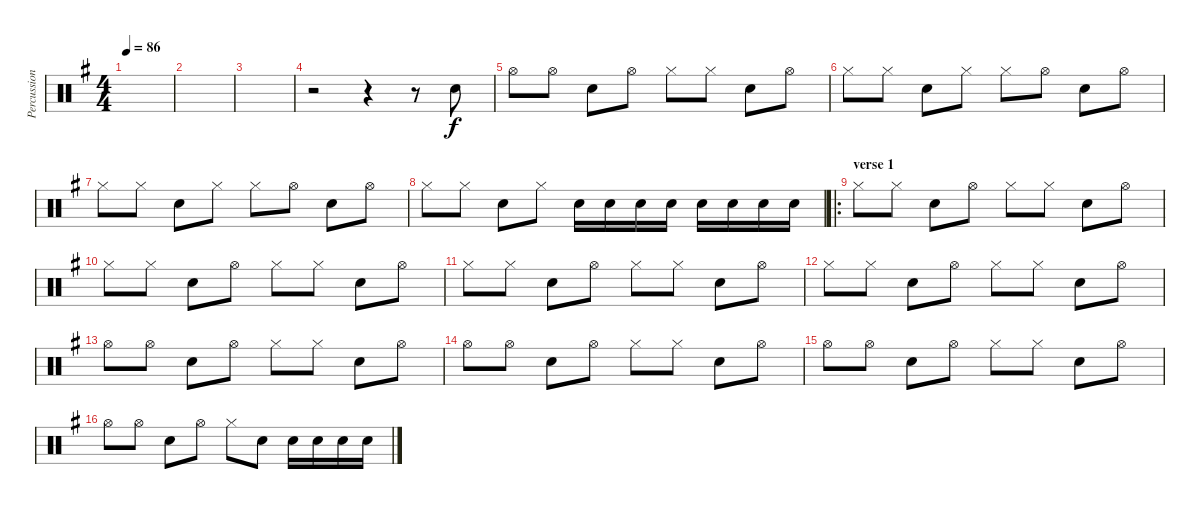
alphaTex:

\track ("Percussion" "Percussion") {instrument percussion}
\staff {score}
\articulation defaults
\ts (4 4)
\tempo 86
\clef neutral
\ks eminor
|
|
|
r.2 r.4 r.8 "Snare (hit) 2".8 |
"Hi-Hat (open)".8 "Hi-Hat (open)".8 "Snare (hit) 2".8 "Hi-Hat (open)".8 "Hi-Hat (closed)".8 "Hi-Hat (closed)".8 "Snare (hit) 2".8 "Hi-Hat (open)".8 |
"Hi-Hat (closed)".8 "Hi-Hat (closed)".8 "Snare (hit) 2".8 "Hi-Hat (closed)".8 "Hi-Hat (closed)".8 "Hi-Hat (open)".8 "Snare (hit) 2".8 "Hi-Hat (open)".8 |
"Hi-Hat (closed)".8 "Hi-Hat (closed)".8 "Snare (hit) 2".8 "Hi-Hat (closed)".8 "Hi-Hat (closed)".8 "Hi-Hat (open)".8 "Snare (hit) 2".8 "Hi-Hat (open)".8 |
"Hi-Hat (closed)".8 "Hi-Hat (closed)".8 "Snare (hit) 2".8 "Hi-Hat (closed)".8 "Snare (hit) 2".16 "Snare (hit) 2".16 "Snare (hit) 2".16 "Snare (hit) 2".16 "Snare (hit) 2".16 "Snare (hit) 2".16 "Snare (hit) 2".16 "Snare (hit) 2".16 |
\ro
\section ("" "verse 1")
"Hi-Hat (closed)".8 "Hi-Hat (closed)".8 "Snare (hit) 2".8 "Hi-Hat (open)".8 "Hi-Hat (closed)".8 "Hi-Hat (closed)".8 "Snare (hit) 2".8 "Hi-Hat (open)".8 |
"Hi-Hat (closed)".8 "Hi-Hat (closed)".8 "Snare (hit) 2".8 "Hi-Hat (open)".8 "Hi-Hat (closed)".8 "Hi-Hat (closed)".8 "Snare (hit) 2".8 "Hi-Hat (open)".8 |
"Hi-Hat (closed)".8 "Hi-Hat (closed)".8 "Snare (hit) 2".8 "Hi-Hat (open)".8 "Hi-Hat (closed)".8 "Hi-Hat (closed)".8 "Snare (hit) 2".8 "Hi-Hat (open)".8 |
"Hi-Hat (closed)".8 "Hi-Hat (closed)".8 "Snare (hit) 2".8 "Hi-Hat (open)".8 "Hi-Hat (closed)".8 "Hi-Hat (closed)".8 "Snare (hit) 2".8 "Hi-Hat (open)".8 |
"Hi-Hat (open)".8 "Hi-Hat (open)".8 "Snare (hit) 2".8 "Hi-Hat (open)".8 "Hi-Hat (closed)".8 "Hi-Hat (closed)".8 "Snare (hit) 2".8 "Hi-Hat (open)".8 |
"Hi-Hat (open)".8 "Hi-Hat (open)".8 "Snare (hit) 2".8 "Hi-Hat (open)".8 "Hi-Hat (closed)".8 "Hi-Hat (closed)".8 "Snare (hit) 2".8 "Hi-Hat (open)".8 |
"Hi-Hat (open)".8 "Hi-Hat (open)".8 "Snare (hit) 2".8 "Hi-Hat (open)".8 "Hi-Hat (closed)".8 "Hi-Hat (closed)".8 "Snare (hit) 2".8 "Hi-Hat (open)".8 |
"Hi-Hat (open)".8 "Hi-Hat (open)".8 "Snare (hit) 2".8 "Hi-Hat (open)".8 "Hi-Hat (closed)".8 "Snare (hit) 2".8 "Snare (hit) 2".16 "Snare (hit) 2".16 "Snare (hit) 2".16 "Snare (hit) 2".16
